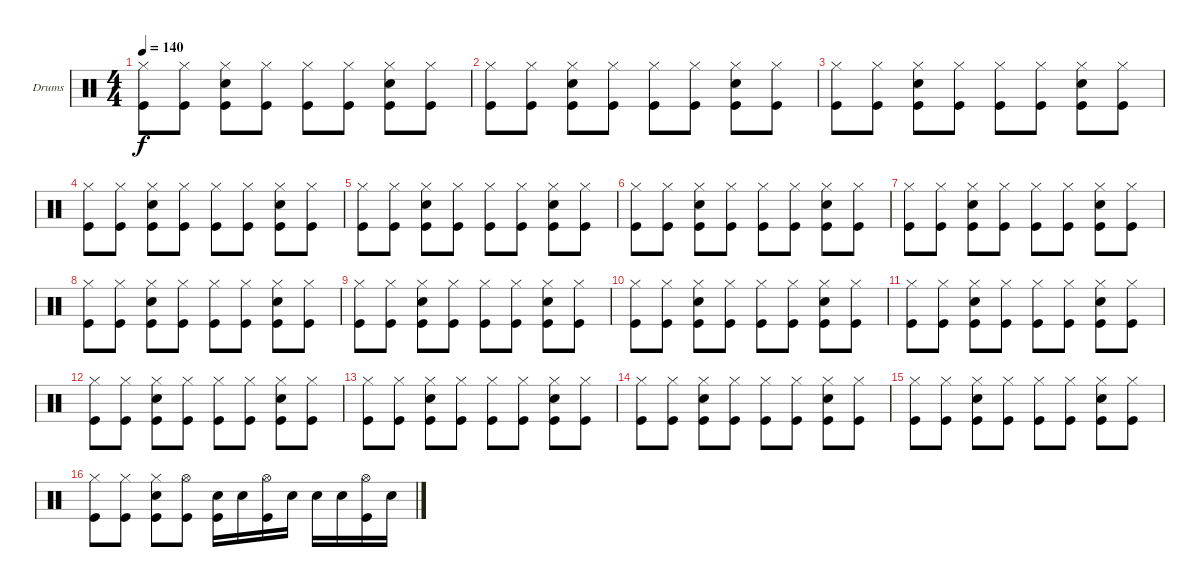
\bracketExtendMode groupsimilarinstruments
\firstSystemTrackNameOrientation horizontal
\otherSystemsTrackNameOrientation horizontal
\track ("Peter Ulrich (Drums)" "Drums") {instrument percussion}
\staff {score}
\articulation defaults
\ts (4 4)
\tempo 140
\clef neutral
\ks c
("Hi-Hat (closed)" "Kick (hit)").8{dy f} ("Hi-Hat (closed)" "Kick (hit)").8 ("Hi-Hat (closed)" "Snare (hit) 2" "Kick (hit)").8 ("Hi-Hat (closed)" "Kick (hit)").8 ("Hi-Hat (closed)" "Kick (hit)").8 ("Hi-Hat (closed)" "Kick (hit)").8 ("Hi-Hat (closed)" "Snare (hit) 2" "Kick (hit)").8 ("Hi-Hat (closed)" "Kick (hit)").8 |
("Hi-Hat (closed)" "Kick (hit)").8 ("Hi-Hat (closed)" "Kick (hit)").8 ("Hi-Hat (closed)" "Snare (hit) 2" "Kick (hit)").8 ("Hi-Hat (closed)" "Kick (hit)").8 ("Hi-Hat (closed)" "Kick (hit)").8 ("Hi-Hat (closed)" "Kick (hit)").8 ("Hi-Hat (closed)" "Snare (hit) 2" "Kick (hit)").8 ("Hi-Hat (closed)" "Kick (hit)").8 |
("Hi-Hat (closed)" "Kick (hit)").8 ("Hi-Hat (closed)" "Kick (hit)").8 ("Hi-Hat (closed)" "Snare (hit) 2" "Kick (hit)").8 ("Hi-Hat (closed)" "Kick (hit)").8 ("Hi-Hat (closed)" "Kick (hit)").8 ("Hi-Hat (closed)" "Kick (hit)").8 ("Hi-Hat (closed)" "Snare (hit) 2" "Kick (hit)").8 ("Hi-Hat (closed)" "Kick (hit)").8 |
("Hi-Hat (closed)" "Kick (hit)").8 ("Hi-Hat (closed)" "Kick (hit)").8 ("Hi-Hat (closed)" "Snare (hit) 2" "Kick (hit)").8 ("Hi-Hat (closed)" "Kick (hit)").8 ("Hi-Hat (closed)" "Kick (hit)").8 ("Hi-Hat (closed)" "Kick (hit)").8 ("Hi-Hat (closed)" "Snare (hit) 2" "Kick (hit)").8 ("Hi-Hat (closed)" "Kick (hit)").8 |
("Hi-Hat (closed)" "Kick (hit)").8 ("Hi-Hat (closed)" "Kick (hit)").8 ("Hi-Hat (closed)" "Snare (hit) 2" "Kick (hit)").8 ("Hi-Hat (closed)" "Kick (hit)").8 ("Hi-Hat (closed)" "Kick (hit)").8 ("Hi-Hat (closed)" "Kick (hit)").8 ("Hi-Hat (closed)" "Snare (hit) 2" "Kick (hit)").8 ("Hi-Hat (closed)" "Kick (hit)").8 |
("Hi-Hat (closed)" "Kick (hit)").8 ("Hi-Hat (closed)" "Kick (hit)").8 ("Hi-Hat (closed)" "Snare (hit) 2" "Kick (hit)").8 ("Hi-Hat (closed)" "Kick (hit)").8 ("Hi-Hat (closed)" "Kick (hit)").8 ("Hi-Hat (closed)" "Kick (hit)").8 ("Hi-Hat (closed)" "Snare (hit) 2" "Kick (hit)").8 ("Hi-Hat (closed)" "Kick (hit)").8 |
("Hi-Hat (closed)" "Kick (hit)").8 ("Hi-Hat (closed)" "Kick (hit)").8 ("Hi-Hat (closed)" "Snare (hit) 2" "Kick (hit)").8 ("Hi-Hat (closed)" "Kick (hit)").8 ("Hi-Hat (closed)" "Kick (hit)").8 ("Hi-Hat (closed)" "Kick (hit)").8 ("Hi-Hat (closed)" "Snare (hit) 2" "Kick (hit)").8 ("Hi-Hat (closed)" "Kick (hit)").8 |
("Hi-Hat (closed)" "Kick (hit)").8 ("Hi-Hat (closed)" "Kick (hit)").8 ("Hi-Hat (closed)" "Snare (hit) 2" "Kick (hit)").8 ("Hi-Hat (closed)" "Kick (hit)").8 ("Hi-Hat (closed)" "Kick (hit)").8 ("Hi-Hat (closed)" "Kick (hit)").8 ("Hi-Hat (closed)" "Snare (hit) 2" "Kick (hit)").8 ("Hi-Hat (closed)" "Kick (hit)").8 |
("Hi-Hat (closed)" "Kick (hit)").8 ("Hi-Hat (closed)" "Kick (hit)").8 ("Hi-Hat (closed)" "Snare (hit) 2" "Kick (hit)").8 ("Hi-Hat (closed)" "Kick (hit)").8 ("Hi-Hat (closed)" "Kick (hit)").8 ("Hi-Hat (closed)" "Kick (hit)").8 ("Hi-Hat (closed)" "Snare (hit) 2" "Kick (hit)").8 ("Hi-Hat (closed)" "Kick (hit)").8 |
("Hi-Hat (closed)" "Kick (hit)").8 ("Hi-Hat (closed)" "Kick (hit)").8 ("Hi-Hat (closed)" "Snare (hit) 2" "Kick (hit)").8 ("Hi-Hat (closed)" "Kick (hit)").8 ("Hi-Hat (closed)" "Kick (hit)").8 ("Hi-Hat (closed)" "Kick (hit)").8 ("Hi-Hat (closed)" "Snare (hit) 2" "Kick (hit)").8 ("Hi-Hat (closed)" "Kick (hit)").8 |
("Hi-Hat (closed)" "Kick (hit)").8 ("Hi-Hat (closed)" "Kick (hit)").8 ("Hi-Hat (closed)" "Snare (hit) 2" "Kick (hit)").8 ("Hi-Hat (closed)" "Kick (hit)").8 ("Hi-Hat (closed)" "Kick (hit)").8 ("Hi-Hat (closed)" "Kick (hit)").8 ("Hi-Hat (closed)" "Snare (hit) 2" "Kick (hit)").8 ("Hi-Hat (closed)" "Kick (hit)").8 |
("Hi-Hat (closed)" "Kick (hit)").8 ("Hi-Hat (closed)" "Kick (hit)").8 ("Hi-Hat (closed)" "Snare (hit) 2" "Kick (hit)").8 ("Hi-Hat (closed)" "Kick (hit)").8 ("Hi-Hat (closed)" "Kick (hit)").8 ("Hi-Hat (closed)" "Kick (hit)").8 ("Hi-Hat (closed)" "Snare (hit) 2" "Kick (hit)").8 ("Hi-Hat (closed)" "Kick (hit)").8 |
("Hi-Hat (closed)" "Kick (hit)").8 ("Hi-Hat (closed)" "Kick (hit)").8 ("Hi-Hat (closed)" "Snare (hit) 2" "Kick (hit)").8 ("Hi-Hat (closed)" "Kick (hit)").8 ("Hi-Hat (closed)" "Kick (hit)").8 ("Hi-Hat (closed)" "Kick (hit)").8 ("Hi-Hat (closed)" "Snare (hit) 2" "Kick (hit)").8 ("Hi-Hat (closed)" "Kick (hit)").8 |
("Hi-Hat (closed)" "Kick (hit)").8 ("Hi-Hat (closed)" "Kick (hit)").8 ("Hi-Hat (closed)" "Snare (hit) 2" "Kick (hit)").8 ("Hi-Hat (closed)" "Kick (hit)").8 ("Hi-Hat (closed)" "Kick (hit)").8 ("Hi-Hat (closed)" "Kick (hit)").8 ("Hi-Hat (closed)" "Snare (hit) 2" "Kick (hit)").8 ("Hi-Hat (closed)" "Kick (hit)").8 |
("Hi-Hat (closed)" "Kick (hit)").8 ("Hi-Hat (closed)" "Kick (hit)").8 ("Hi-Hat (closed)" "Snare (hit) 2" "Kick (hit)").8 ("Hi-Hat (closed)" "Kick (hit)").8 ("Hi-Hat (closed)" "Kick (hit)").8 ("Hi-Hat (closed)" "Kick (hit)").8 ("Hi-Hat (closed)" "Snare (hit) 2" "Kick (hit)").8 ("Hi-Hat (closed)" "Kick (hit)").8 |
("Kick (hit)" "Hi-Hat (closed)").8 ("Kick (hit)" "Hi-Hat (closed)").8 ("Kick (hit)" "Hi-Hat (closed)" "Snare (hit) 2").8 ("Kick (hit)" "Hi-Hat (open)").8 ("Snare (hit) 2" "Kick (hit)").16 "Snare (hit) 2".16 ("Hi-Hat (open)" "Kick (hit)").16 "Snare (hit) 2".16 "Snare (hit) 2".16 "Snare (hit) 2".16 ("Hi-Hat (open)" "Kick (hit)").16 "Snare (hit) 2".16
